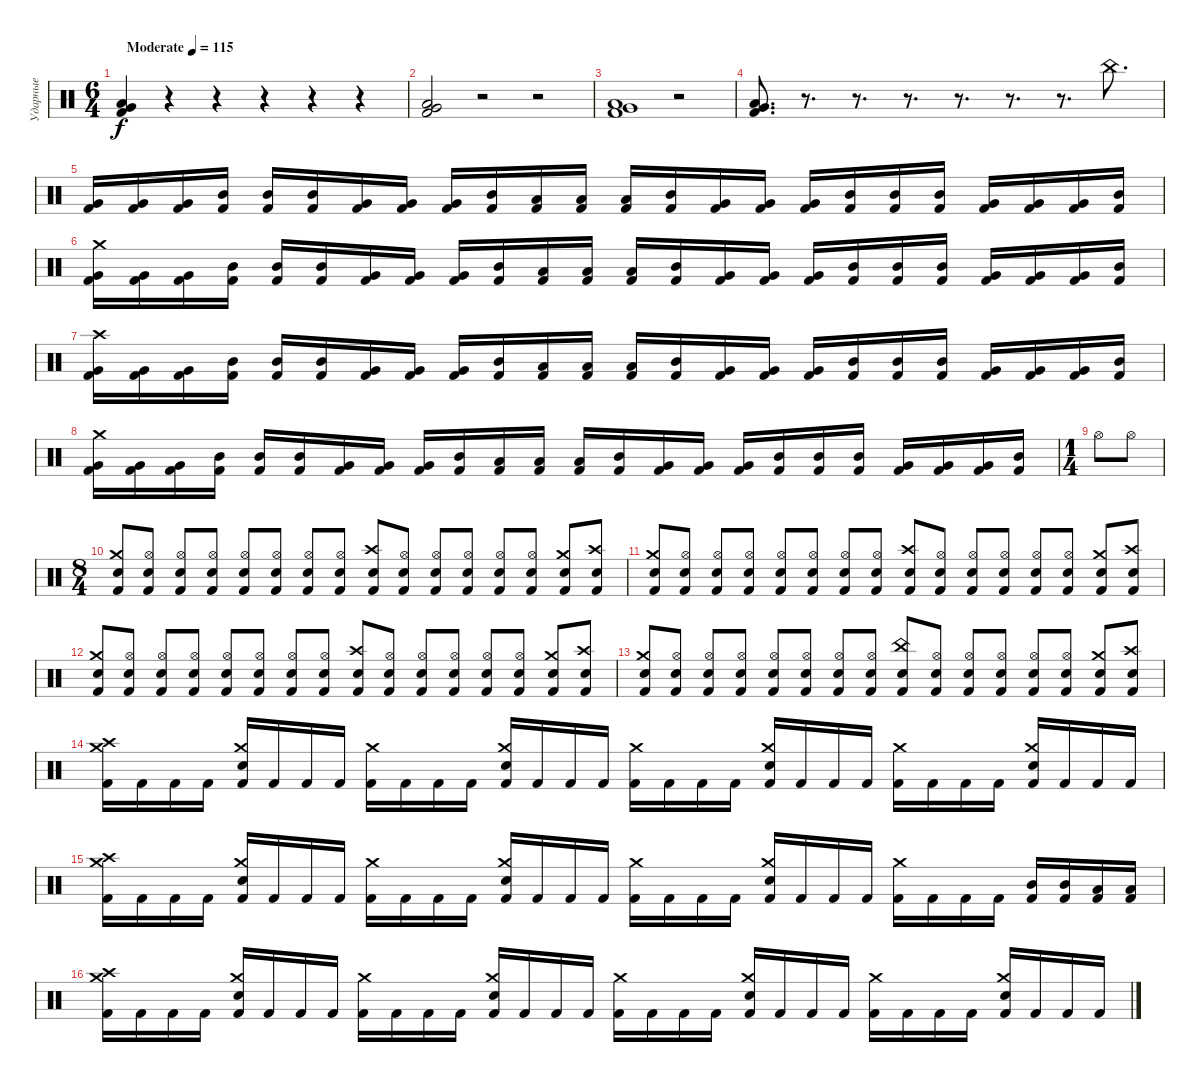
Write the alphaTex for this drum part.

\track ("Ударные" "Ударные") {instrument percussion}
\staff {score}
\articulation defaults
\ts (6 4)
\tempo (115 "Moderate")
\clef neutral
\ks c
("Low Tom (hit)" "Very Low Tom (hit)" "Kick (hit) 2").4{dy f} r.4 r.4 r.4 r.4 r.4 |
("Low Tom (hit)" "Very Low Tom (hit)" "Kick (hit) 2").2 r.2 r.2 |
("Low Tom (hit)" "Very Low Tom (hit)" "Kick (hit) 2").1 r.2 |
("Low Tom (hit)" "Very Low Tom (hit)" "Kick (hit) 2").8{d} r.8{d} r.8{d} r.8{d} r.8{d} r.8{d} r.8{d} "China (hit)".8{d} |
("Very Low Tom (hit)" "Kick (hit) 2").16 ("Very Low Tom (hit)" "Kick (hit) 2").16 ("Very Low Tom (hit)" "Kick (hit) 2").16 ("Mid Tom (hit)" "Kick (hit) 2").16 ("Mid Tom (hit)" "Kick (hit) 2").16 ("Mid Tom (hit)" "Kick (hit) 2").16 ("Very Low Tom (hit)" "Kick (hit) 2").16 ("Very Low Tom (hit)" "Kick (hit) 2").16 ("Very Low Tom (hit)" "Kick (hit) 2").16 ("Mid Tom (hit)" "Kick (hit) 2").16 ("Low Tom (hit)" "Kick (hit) 2").16 ("Low Tom (hit)" "Kick (hit) 2").16 ("Low Tom (hit)" "Kick (hit) 2").16 ("Mid Tom (hit)" "Kick (hit) 2").16 ("Very Low Tom (hit)" "Kick (hit) 2").16 ("Very Low Tom (hit)" "Kick (hit) 2").16 ("Very Low Tom (hit)" "Kick (hit) 2").16 ("Mid Tom (hit)" "Kick (hit) 2").16 ("Mid Tom (hit)" "Kick (hit) 2").16 ("Mid Tom (hit)" "Kick (hit) 2").16 ("Very Low Tom (hit)" "Kick (hit) 2").16 ("Very Low Tom (hit)" "Kick (hit) 2").16 ("Very Low Tom (hit)" "Kick (hit) 2").16 ("Mid Tom (hit)" "Kick (hit) 2").16 |
("Crash medium (hit)" "Very Low Tom (hit)" "Kick (hit) 2").16 ("Very Low Tom (hit)" "Kick (hit) 2").16 ("Very Low Tom (hit)" "Kick (hit) 2").16 ("Mid Tom (hit)" "Kick (hit) 2").16 ("Mid Tom (hit)" "Kick (hit) 2").16 ("Mid Tom (hit)" "Kick (hit) 2").16 ("Very Low Tom (hit)" "Kick (hit) 2").16 ("Very Low Tom (hit)" "Kick (hit) 2").16 ("Very Low Tom (hit)" "Kick (hit) 2").16 ("Mid Tom (hit)" "Kick (hit) 2").16 ("Low Tom (hit)" "Kick (hit) 2").16 ("Low Tom (hit)" "Kick (hit) 2").16 ("Low Tom (hit)" "Kick (hit) 2").16 ("Mid Tom (hit)" "Kick (hit) 2").16 ("Very Low Tom (hit)" "Kick (hit) 2").16 ("Very Low Tom (hit)" "Kick (hit) 2").16 ("Very Low Tom (hit)" "Kick (hit) 2").16 ("Mid Tom (hit)" "Kick (hit) 2").16 ("Mid Tom (hit)" "Kick (hit) 2").16 ("Mid Tom (hit)" "Kick (hit) 2").16 ("Very Low Tom (hit)" "Kick (hit) 2").16 ("Very Low Tom (hit)" "Kick (hit) 2").16 ("Very Low Tom (hit)" "Kick (hit) 2").16 ("Mid Tom (hit)" "Kick (hit) 2").16 |
("Crash high (hit)" "Very Low Tom (hit)" "Kick (hit) 2").16 ("Very Low Tom (hit)" "Kick (hit) 2").16 ("Very Low Tom (hit)" "Kick (hit) 2").16 ("Mid Tom (hit)" "Kick (hit) 2").16 ("Mid Tom (hit)" "Kick (hit) 2").16 ("Mid Tom (hit)" "Kick (hit) 2").16 ("Very Low Tom (hit)" "Kick (hit) 2").16 ("Very Low Tom (hit)" "Kick (hit) 2").16 ("Very Low Tom (hit)" "Kick (hit) 2").16 ("Mid Tom (hit)" "Kick (hit) 2").16 ("Low Tom (hit)" "Kick (hit) 2").16 ("Low Tom (hit)" "Kick (hit) 2").16 ("Low Tom (hit)" "Kick (hit) 2").16 ("Mid Tom (hit)" "Kick (hit) 2").16 ("Very Low Tom (hit)" "Kick (hit) 2").16 ("Very Low Tom (hit)" "Kick (hit) 2").16 ("Very Low Tom (hit)" "Kick (hit) 2").16 ("Mid Tom (hit)" "Kick (hit) 2").16 ("Mid Tom (hit)" "Kick (hit) 2").16 ("Mid Tom (hit)" "Kick (hit) 2").16 ("Very Low Tom (hit)" "Kick (hit) 2").16 ("Very Low Tom (hit)" "Kick (hit) 2").16 ("Very Low Tom (hit)" "Kick (hit) 2").16 ("Mid Tom (hit)" "Kick (hit) 2").16 |
("Crash medium (hit)" "Very Low Tom (hit)" "Kick (hit) 2").16 ("Very Low Tom (hit)" "Kick (hit) 2").16 ("Very Low Tom (hit)" "Kick (hit) 2").16 ("Mid Tom (hit)" "Kick (hit) 2").16 ("Mid Tom (hit)" "Kick (hit) 2").16 ("Mid Tom (hit)" "Kick (hit) 2").16 ("Very Low Tom (hit)" "Kick (hit) 2").16 ("Very Low Tom (hit)" "Kick (hit) 2").16 ("Very Low Tom (hit)" "Kick (hit) 2").16 ("Mid Tom (hit)" "Kick (hit) 2").16 ("Low Tom (hit)" "Kick (hit) 2").16 ("Low Tom (hit)" "Kick (hit) 2").16 ("Low Tom (hit)" "Kick (hit) 2").16 ("Mid Tom (hit)" "Kick (hit) 2").16 ("Very Low Tom (hit)" "Kick (hit) 2").16 ("Very Low Tom (hit)" "Kick (hit) 2").16 ("Very Low Tom (hit)" "Kick (hit) 2").16 ("Mid Tom (hit)" "Kick (hit) 2").16 ("Mid Tom (hit)" "Kick (hit) 2").16 ("Mid Tom (hit)" "Kick (hit) 2").16 ("Very Low Tom (hit)" "Kick (hit) 2").16 ("Very Low Tom (hit)" "Kick (hit) 2").16 ("Very Low Tom (hit)" "Kick (hit) 2").16 ("Mid Tom (hit)" "Kick (hit) 2").16 |
\ts (1 4)
"Hi-Hat (open)".8 "Hi-Hat (open)".8 |
\ts (8 4)
("Crash medium (hit)" "Electric Snare (hit)" "Kick (hit) 2").8 ("Hi-Hat (open)" "Electric Snare (hit)" "Kick (hit) 2").8 ("Hi-Hat (open)" "Electric Snare (hit)" "Kick (hit) 2").8 ("Hi-Hat (open)" "Electric Snare (hit)" "Kick (hit) 2").8 ("Hi-Hat (open)" "Electric Snare (hit)" "Kick (hit) 2").8 ("Hi-Hat (open)" "Electric Snare (hit)" "Kick (hit) 2").8 ("Hi-Hat (open)" "Electric Snare (hit)" "Kick (hit) 2").8 ("Hi-Hat (open)" "Electric Snare (hit)" "Kick (hit) 2").8 ("Crash high (hit)" "Electric Snare (hit)" "Kick (hit) 2").8 ("Hi-Hat (open)" "Electric Snare (hit)" "Kick (hit) 2").8 ("Hi-Hat (open)" "Electric Snare (hit)" "Kick (hit) 2").8 ("Hi-Hat (open)" "Electric Snare (hit)" "Kick (hit) 2").8 ("Hi-Hat (open)" "Electric Snare (hit)" "Kick (hit) 2").8 ("Hi-Hat (open)" "Electric Snare (hit)" "Kick (hit) 2").8 ("Crash medium (hit)" "Electric Snare (hit)" "Kick (hit) 2").8 ("Crash high (hit)" "Electric Snare (hit)" "Kick (hit) 2").8 |
("Crash medium (hit)" "Electric Snare (hit)" "Kick (hit) 2").8 ("Hi-Hat (open)" "Electric Snare (hit)" "Kick (hit) 2").8 ("Hi-Hat (open)" "Electric Snare (hit)" "Kick (hit) 2").8 ("Hi-Hat (open)" "Electric Snare (hit)" "Kick (hit) 2").8 ("Hi-Hat (open)" "Electric Snare (hit)" "Kick (hit) 2").8 ("Hi-Hat (open)" "Electric Snare (hit)" "Kick (hit) 2").8 ("Hi-Hat (open)" "Electric Snare (hit)" "Kick (hit) 2").8 ("Hi-Hat (open)" "Electric Snare (hit)" "Kick (hit) 2").8 ("Crash high (hit)" "Electric Snare (hit)" "Kick (hit) 2").8 ("Hi-Hat (open)" "Electric Snare (hit)" "Kick (hit) 2").8 ("Hi-Hat (open)" "Electric Snare (hit)" "Kick (hit) 2").8 ("Hi-Hat (open)" "Electric Snare (hit)" "Kick (hit) 2").8 ("Hi-Hat (open)" "Electric Snare (hit)" "Kick (hit) 2").8 ("Hi-Hat (open)" "Electric Snare (hit)" "Kick (hit) 2").8 ("Crash medium (hit)" "Electric Snare (hit)" "Kick (hit) 2").8 ("Crash high (hit)" "Electric Snare (hit)" "Kick (hit) 2").8 |
("Crash medium (hit)" "Electric Snare (hit)" "Kick (hit) 2").8 ("Hi-Hat (open)" "Electric Snare (hit)" "Kick (hit) 2").8 ("Hi-Hat (open)" "Electric Snare (hit)" "Kick (hit) 2").8 ("Hi-Hat (open)" "Electric Snare (hit)" "Kick (hit) 2").8 ("Hi-Hat (open)" "Electric Snare (hit)" "Kick (hit) 2").8 ("Hi-Hat (open)" "Electric Snare (hit)" "Kick (hit) 2").8 ("Hi-Hat (open)" "Electric Snare (hit)" "Kick (hit) 2").8 ("Hi-Hat (open)" "Electric Snare (hit)" "Kick (hit) 2").8 ("Crash high (hit)" "Electric Snare (hit)" "Kick (hit) 2").8 ("Hi-Hat (open)" "Electric Snare (hit)" "Kick (hit) 2").8 ("Hi-Hat (open)" "Electric Snare (hit)" "Kick (hit) 2").8 ("Hi-Hat (open)" "Electric Snare (hit)" "Kick (hit) 2").8 ("Hi-Hat (open)" "Electric Snare (hit)" "Kick (hit) 2").8 ("Hi-Hat (open)" "Electric Snare (hit)" "Kick (hit) 2").8 ("Crash medium (hit)" "Electric Snare (hit)" "Kick (hit) 2").8 ("Crash high (hit)" "Electric Snare (hit)" "Kick (hit) 2").8 |
("Crash medium (hit)" "Electric Snare (hit)" "Kick (hit) 2").8 ("Hi-Hat (open)" "Electric Snare (hit)" "Kick (hit) 2").8 ("Hi-Hat (open)" "Electric Snare (hit)" "Kick (hit) 2").8 ("Hi-Hat (open)" "Electric Snare (hit)" "Kick (hit) 2").8 ("Hi-Hat (open)" "Electric Snare (hit)" "Kick (hit) 2").8 ("Hi-Hat (open)" "Electric Snare (hit)" "Kick (hit) 2").8 ("Hi-Hat (open)" "Electric Snare (hit)" "Kick (hit) 2").8 ("Hi-Hat (open)" "Electric Snare (hit)" "Kick (hit) 2").8 ("China (hit)" "Electric Snare (hit)" "Kick (hit) 2").8 ("Hi-Hat (open)" "Electric Snare (hit)" "Kick (hit) 2").8 ("Hi-Hat (open)" "Electric Snare (hit)" "Kick (hit) 2").8 ("Hi-Hat (open)" "Electric Snare (hit)" "Kick (hit) 2").8 ("Hi-Hat (open)" "Electric Snare (hit)" "Kick (hit) 2").8 ("Hi-Hat (open)" "Electric Snare (hit)" "Kick (hit) 2").8 ("Crash medium (hit)" "Electric Snare (hit)" "Kick (hit) 2").8 ("Crash high (hit)" "Electric Snare (hit)" "Kick (hit) 2").8 |
("Crash medium (hit)" "Crash high (hit)" "Kick (hit) 2").16 "Kick (hit) 2".16 "Kick (hit) 2".16 "Kick (hit) 2".16 ("Crash medium (hit)" "Electric Snare (hit)" "Kick (hit) 2").16 "Kick (hit) 2".16 "Kick (hit) 2".16 "Kick (hit) 2".16 ("Crash medium (hit)" "Kick (hit) 2").16 "Kick (hit) 2".16 "Kick (hit) 2".16 "Kick (hit) 2".16 ("Crash medium (hit)" "Electric Snare (hit)" "Kick (hit) 2").16 "Kick (hit) 2".16 "Kick (hit) 2".16 "Kick (hit) 2".16 ("Crash medium (hit)" "Kick (hit) 2").16 "Kick (hit) 2".16 "Kick (hit) 2".16 "Kick (hit) 2".16 ("Crash medium (hit)" "Electric Snare (hit)" "Kick (hit) 2").16 "Kick (hit) 2".16 "Kick (hit) 2".16 "Kick (hit) 2".16 ("Crash medium (hit)" "Kick (hit) 2").16 "Kick (hit) 2".16 "Kick (hit) 2".16 "Kick (hit) 2".16 ("Crash medium (hit)" "Electric Snare (hit)" "Kick (hit) 2").16 "Kick (hit) 2".16 "Kick (hit) 2".16 "Kick (hit) 2".16 |
("Crash medium (hit)" "Crash high (hit)" "Kick (hit) 2").16 "Kick (hit) 2".16 "Kick (hit) 2".16 "Kick (hit) 2".16 ("Crash medium (hit)" "Electric Snare (hit)" "Kick (hit) 2").16 "Kick (hit) 2".16 "Kick (hit) 2".16 "Kick (hit) 2".16 ("Crash medium (hit)" "Kick (hit) 2").16 "Kick (hit) 2".16 "Kick (hit) 2".16 "Kick (hit) 2".16 ("Crash medium (hit)" "Electric Snare (hit)" "Kick (hit) 2").16 "Kick (hit) 2".16 "Kick (hit) 2".16 "Kick (hit) 2".16 ("Crash medium (hit)" "Kick (hit) 2").16 "Kick (hit) 2".16 "Kick (hit) 2".16 "Kick (hit) 2".16 ("Crash medium (hit)" "Electric Snare (hit)" "Kick (hit) 2").16 "Kick (hit) 2".16 "Kick (hit) 2".16 "Kick (hit) 2".16 ("Crash medium (hit)" "Kick (hit) 2").16 "Kick (hit) 2".16 "Kick (hit) 2".16 "Kick (hit) 2".16 ("Mid Tom (hit)" "Kick (hit) 2").16 ("Mid Tom (hit)" "Kick (hit) 2").16 ("Low Tom (hit)" "Kick (hit) 2").16 ("Low Tom (hit)" "Kick (hit) 2").16 |
("Crash medium (hit)" "Crash high (hit)" "Kick (hit) 2").16 "Kick (hit) 2".16 "Kick (hit) 2".16 "Kick (hit) 2".16 ("Crash medium (hit)" "Electric Snare (hit)" "Kick (hit) 2").16 "Kick (hit) 2".16 "Kick (hit) 2".16 "Kick (hit) 2".16 ("Crash medium (hit)" "Kick (hit) 2").16 "Kick (hit) 2".16 "Kick (hit) 2".16 "Kick (hit) 2".16 ("Crash medium (hit)" "Electric Snare (hit)" "Kick (hit) 2").16 "Kick (hit) 2".16 "Kick (hit) 2".16 "Kick (hit) 2".16 ("Crash medium (hit)" "Kick (hit) 2").16 "Kick (hit) 2".16 "Kick (hit) 2".16 "Kick (hit) 2".16 ("Crash medium (hit)" "Electric Snare (hit)" "Kick (hit) 2").16 "Kick (hit) 2".16 "Kick (hit) 2".16 "Kick (hit) 2".16 ("Crash medium (hit)" "Kick (hit) 2").16 "Kick (hit) 2".16 "Kick (hit) 2".16 "Kick (hit) 2".16 ("Crash medium (hit)" "Electric Snare (hit)" "Kick (hit) 2").16 "Kick (hit) 2".16 "Kick (hit) 2".16 "Kick (hit) 2".16
